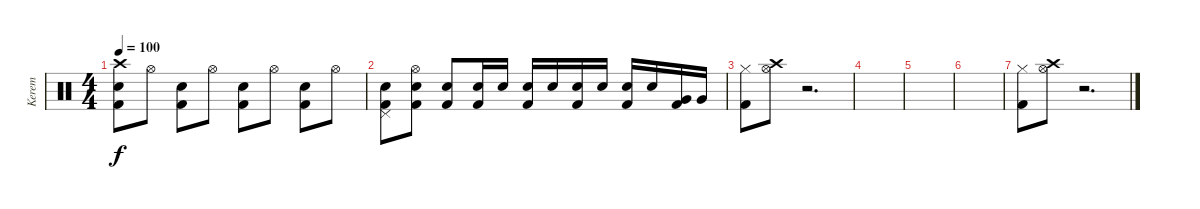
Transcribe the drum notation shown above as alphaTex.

\track ("Kerem" "Kerem") {instrument percussion}
\staff {score}
\articulation defaults
\ts (4 4)
\tempo 100
\clef neutral
\ks c
("Crash high (hit)" "Electric Snare (hit)" "Kick (hit) 2").8{dy f} "Hi-Hat (open)".8 ("Electric Snare (hit)" "Kick (hit) 2").8 "Hi-Hat (open)".8 ("Electric Snare (hit)" "Kick (hit) 2").8 "Hi-Hat (open)".8 ("Electric Snare (hit)" "Kick (hit) 2").8 "Hi-Hat (open)".8 |
("Pedal Hi-Hat (hit)" "Electric Snare (hit)" "Kick (hit) 2").8 ("Electric Snare (hit)" "Hi-Hat (open)" "Kick (hit) 2").8 ("Electric Snare (hit)" "Kick (hit) 2").8 ("Electric Snare (hit)" "Kick (hit) 2").16 "Electric Snare (hit)".16 ("Electric Snare (hit)" "Kick (hit) 2").16 "Electric Snare (hit)".16 ("Electric Snare (hit)" "Kick (hit) 2").16 "Electric Snare (hit)".16 ("Electric Snare (hit)" "Kick (hit) 2").16 "Electric Snare (hit)".16 ("Very Low Tom (hit)" "Kick (hit) 2").16 "Very Low Tom (hit)".16 |
("Hi-Hat (closed)" "Kick (hit) 2").8 ("Hi-Hat (open)" "Crash high (hit)").8 r.2{d} |
|
|
|
("Hi-Hat (closed)" "Kick (hit) 2").8 ("Hi-Hat (open)" "Crash high (hit)").8 r.2{d}
